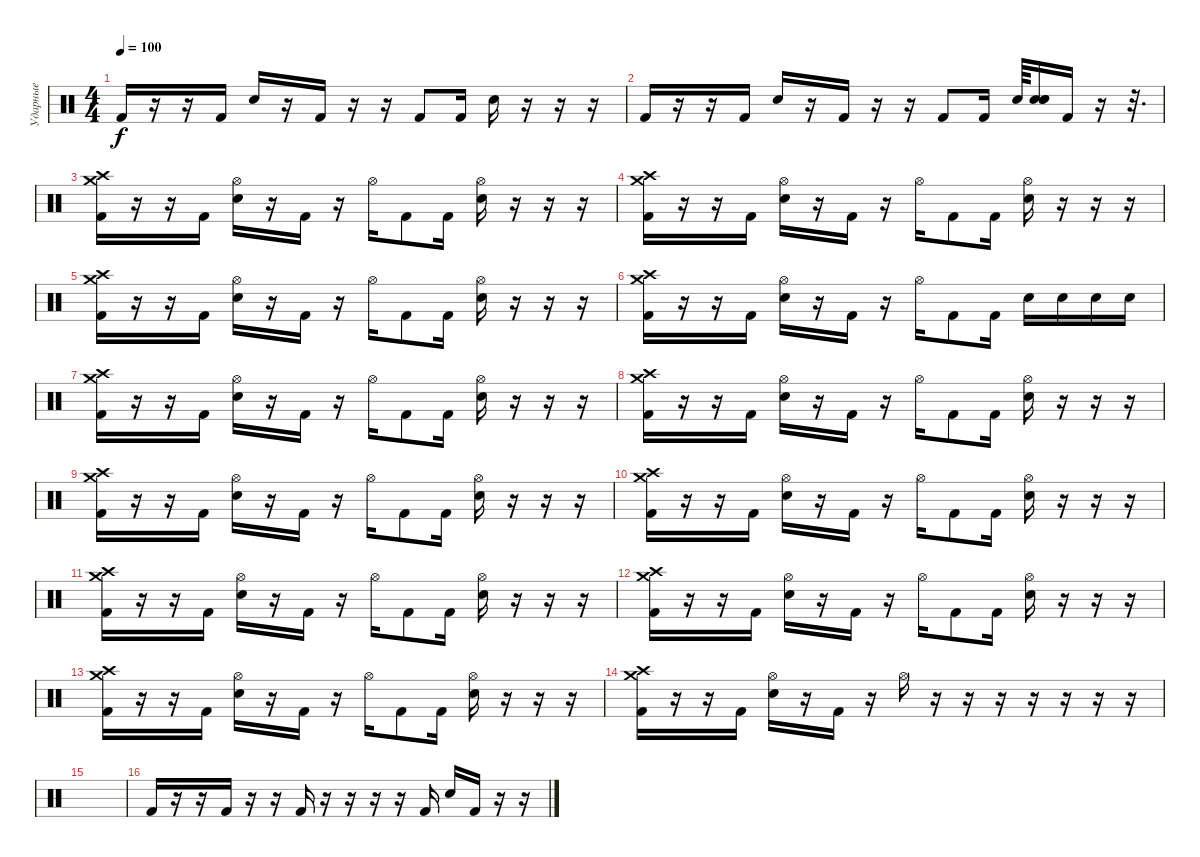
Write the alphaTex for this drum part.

\track ("Ударные" "Ударные") {instrument percussion}
\staff {score}
\articulation defaults
\ts (4 4)
\tempo 100
\clef neutral
\ks c "Kick (hit) 2".16{dy f}
r.16 r.16 "Kick (hit) 2".16 "Electric Snare (hit)".16 r.16 "Kick (hit) 2".16 r.16 r.16 "Kick (hit) 2".8 "Kick (hit) 2".16 "Electric Snare (hit)".16 r.16 r.16 r.16 |
"Kick (hit) 2".16 r.16 r.16 "Kick (hit) 2".16 "Electric Snare (hit)".16 r.16 "Kick (hit) 2".16 r.16 r.16 "Kick (hit) 2".8 "Kick (hit) 2".16 "Electric Snare (hit)".64 ("Electric Snare (hit)" "Electric Snare (hit)" "Electric Snare (hit)").16 "Kick (hit) 2".16 r.16 r.32{d} |
("Kick (hit) 2" "Crash high (hit)" "Crash medium (hit)").16 r.16 r.16 "Kick (hit) 2".16 ("Electric Snare (hit)" "Hi-Hat (open)").16 r.16 "Kick (hit) 2".16 r.16 "Hi-Hat (open)".16 "Kick (hit) 2".8 "Kick (hit) 2".16 ("Electric Snare (hit)" "Hi-Hat (open)").16 r.16 r.16 r.16 |
("Kick (hit) 2" "Crash high (hit)" "Crash medium (hit)").16 r.16 r.16 "Kick (hit) 2".16 ("Electric Snare (hit)" "Hi-Hat (open)").16 r.16 "Kick (hit) 2".16 r.16 "Hi-Hat (open)".16 "Kick (hit) 2".8 "Kick (hit) 2".16 ("Electric Snare (hit)" "Hi-Hat (open)").16 r.16 r.16 r.16 |
("Kick (hit) 2" "Crash high (hit)" "Crash medium (hit)").16 r.16 r.16 "Kick (hit) 2".16 ("Electric Snare (hit)" "Hi-Hat (open)").16 r.16 "Kick (hit) 2".16 r.16 "Hi-Hat (open)".16 "Kick (hit) 2".8 "Kick (hit) 2".16 ("Electric Snare (hit)" "Hi-Hat (open)").16 r.16 r.16 r.16 |
("Kick (hit) 2" "Crash high (hit)" "Crash medium (hit)").16 r.16 r.16 "Kick (hit) 2".16 ("Electric Snare (hit)" "Hi-Hat (open)").16 r.16 "Kick (hit) 2".16 r.16 "Hi-Hat (open)".16 "Kick (hit) 2".8 "Kick (hit) 2".16 "Electric Snare (hit)".16 "Electric Snare (hit)".16 "Electric Snare (hit)".16 "Electric Snare (hit)".16 |
("Kick (hit) 2" "Crash high (hit)" "Crash medium (hit)").16 r.16 r.16 "Kick (hit) 2".16 ("Electric Snare (hit)" "Hi-Hat (open)").16 r.16 "Kick (hit) 2".16 r.16 "Hi-Hat (open)".16 "Kick (hit) 2".8 "Kick (hit) 2".16 ("Electric Snare (hit)" "Hi-Hat (open)").16 r.16 r.16 r.16 |
("Kick (hit) 2" "Crash high (hit)" "Crash medium (hit)").16 r.16 r.16 "Kick (hit) 2".16 ("Electric Snare (hit)" "Hi-Hat (open)").16 r.16 "Kick (hit) 2".16 r.16 "Hi-Hat (open)".16 "Kick (hit) 2".8 "Kick (hit) 2".16 ("Electric Snare (hit)" "Hi-Hat (open)").16 r.16 r.16 r.16 |
("Kick (hit) 2" "Crash high (hit)" "Crash medium (hit)").16 r.16 r.16 "Kick (hit) 2".16 ("Electric Snare (hit)" "Hi-Hat (open)").16 r.16 "Kick (hit) 2".16 r.16 "Hi-Hat (open)".16 "Kick (hit) 2".8 "Kick (hit) 2".16 ("Electric Snare (hit)" "Hi-Hat (open)").16 r.16 r.16 r.16 |
("Kick (hit) 2" "Crash high (hit)" "Crash medium (hit)").16 r.16 r.16 "Kick (hit) 2".16 ("Electric Snare (hit)" "Hi-Hat (open)").16 r.16 "Kick (hit) 2".16 r.16 "Hi-Hat (open)".16 "Kick (hit) 2".8 "Kick (hit) 2".16 ("Electric Snare (hit)" "Hi-Hat (open)").16 r.16 r.16 r.16 |
("Kick (hit) 2" "Crash high (hit)" "Crash medium (hit)").16 r.16 r.16 "Kick (hit) 2".16 ("Electric Snare (hit)" "Hi-Hat (open)").16 r.16 "Kick (hit) 2".16 r.16 "Hi-Hat (open)".16 "Kick (hit) 2".8 "Kick (hit) 2".16 ("Electric Snare (hit)" "Hi-Hat (open)").16 r.16 r.16 r.16 |
("Kick (hit) 2" "Crash high (hit)" "Crash medium (hit)").16 r.16 r.16 "Kick (hit) 2".16 ("Electric Snare (hit)" "Hi-Hat (open)").16 r.16 "Kick (hit) 2".16 r.16 "Hi-Hat (open)".16 "Kick (hit) 2".8 "Kick (hit) 2".16 ("Electric Snare (hit)" "Hi-Hat (open)").16 r.16 r.16 r.16 |
("Kick (hit) 2" "Crash high (hit)" "Crash medium (hit)").16 r.16 r.16 "Kick (hit) 2".16 ("Electric Snare (hit)" "Hi-Hat (open)").16 r.16 "Kick (hit) 2".16 r.16 "Hi-Hat (open)".16 "Kick (hit) 2".8 "Kick (hit) 2".16 ("Electric Snare (hit)" "Hi-Hat (open)").16 r.16 r.16 r.16 |
("Kick (hit) 2" "Crash high (hit)" "Crash medium (hit)").16 r.16 r.16 "Kick (hit) 2".16 ("Electric Snare (hit)" "Hi-Hat (open)").16 r.16 "Kick (hit) 2".16 r.16 "Hi-Hat (open)".16 r.16 r.16 r.16 r.16 r.16 r.16 r.16 |
|
"Kick (hit) 2".16 r.16 r.16 "Kick (hit) 2".16 r.16 r.16 "Kick (hit) 2".16 r.16 r.16 r.16 r.16 "Kick (hit) 2".16 "Electric Snare (hit)".16 "Kick (hit) 2".16 r.16 r.16
